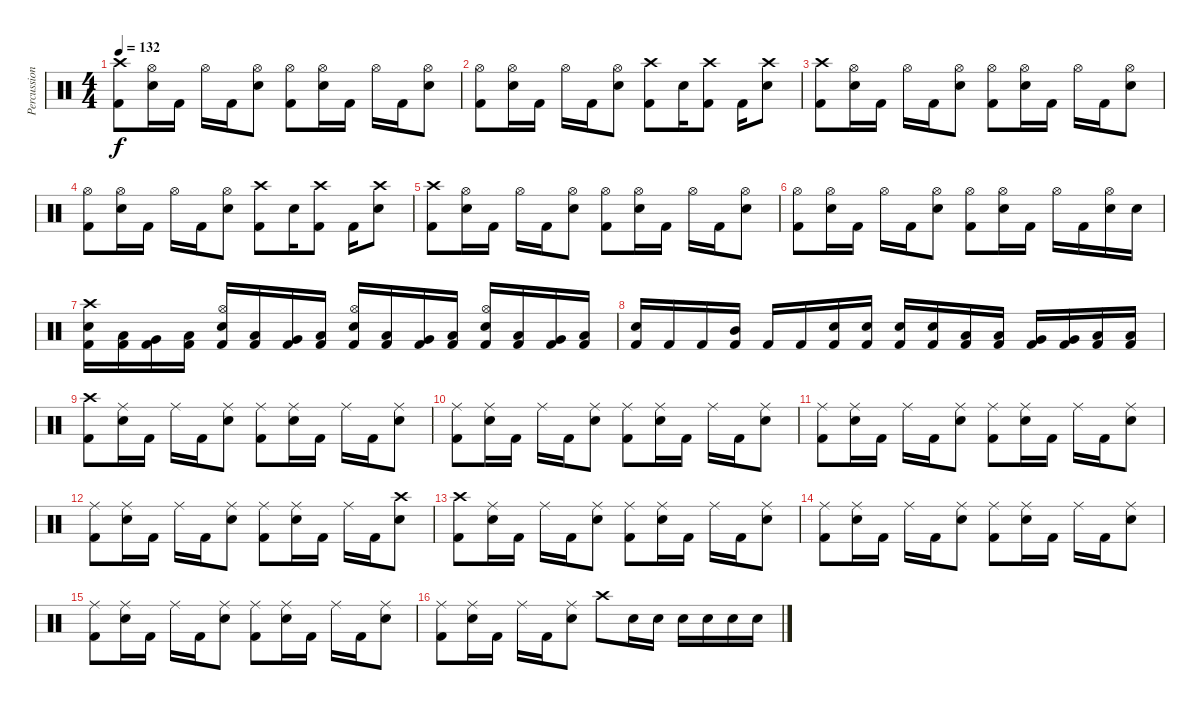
\track ("Percussion" "Percussion") {instrument percussion}
\staff {score}
\articulation defaults
\ts (4 4)
\tempo 132
\clef neutral
\ks c
("Crash high (hit)" "Kick (hit) 2").8{dy f} ("Hi-Hat (open)" "Snare (hit) 2").16 "Kick (hit) 2".16 "Hi-Hat (open)".16 "Kick (hit) 2".16 ("Hi-Hat (open)" "Snare (hit) 2").8 ("Hi-Hat (open)" "Kick (hit) 2").8 ("Hi-Hat (open)" "Snare (hit) 2").16 "Kick (hit) 2".16 "Hi-Hat (open)".16 "Kick (hit) 2".16 ("Hi-Hat (open)" "Snare (hit) 2").8 |
("Hi-Hat (open)" "Kick (hit) 2").8 ("Hi-Hat (open)" "Snare (hit) 2").16 "Kick (hit) 2".16 "Hi-Hat (open)".16 "Kick (hit) 2".16 ("Hi-Hat (open)" "Snare (hit) 2").8 ("Crash high (hit)" "Kick (hit) 2").8 "Snare (hit) 2".16 ("Crash high (hit)" "Kick (hit) 2").8 "Kick (hit) 2".16 ("Crash high (hit)" "Snare (hit) 2").8 |
("Crash high (hit)" "Kick (hit) 2").8 ("Hi-Hat (open)" "Snare (hit) 2").16 "Kick (hit) 2".16 "Hi-Hat (open)".16 "Kick (hit) 2".16 ("Hi-Hat (open)" "Snare (hit) 2").8 ("Hi-Hat (open)" "Kick (hit) 2").8 ("Hi-Hat (open)" "Snare (hit) 2").16 "Kick (hit) 2".16 "Hi-Hat (open)".16 "Kick (hit) 2".16 ("Hi-Hat (open)" "Snare (hit) 2").8 |
("Hi-Hat (open)" "Kick (hit) 2").8 ("Hi-Hat (open)" "Snare (hit) 2").16 "Kick (hit) 2".16 "Hi-Hat (open)".16 "Kick (hit) 2".16 ("Hi-Hat (open)" "Snare (hit) 2").8 ("Crash high (hit)" "Kick (hit) 2").8 "Snare (hit) 2".16 ("Crash high (hit)" "Kick (hit) 2").8 "Kick (hit) 2".16 ("Crash high (hit)" "Snare (hit) 2").8 |
("Crash high (hit)" "Kick (hit) 2").8 ("Hi-Hat (open)" "Snare (hit) 2").16 "Kick (hit) 2".16 "Hi-Hat (open)".16 "Kick (hit) 2".16 ("Hi-Hat (open)" "Snare (hit) 2").8 ("Hi-Hat (open)" "Kick (hit) 2").8 ("Hi-Hat (open)" "Snare (hit) 2").16 "Kick (hit) 2".16 "Hi-Hat (open)".16 "Kick (hit) 2".16 ("Hi-Hat (open)" "Snare (hit) 2").8 |
("Hi-Hat (open)" "Kick (hit) 2").8 ("Hi-Hat (open)" "Snare (hit) 2").16 "Kick (hit) 2".16 "Hi-Hat (open)".16 "Kick (hit) 2".16 ("Hi-Hat (open)" "Snare (hit) 2").8 ("Hi-Hat (open)" "Kick (hit) 2").8 ("Hi-Hat (open)" "Snare (hit) 2").16 "Kick (hit) 2".16 "Hi-Hat (open)".16 "Kick (hit) 2".16 ("Hi-Hat (open)" "Snare (hit) 2").16 "Snare (hit) 2".16 |
("Crash high (hit)" "Snare (hit) 2" "Kick (hit) 2").16 ("Low Tom (hit)" "Kick (hit) 2").16 ("Very Low Tom (hit)" "Kick (hit) 2").16 ("Low Floor Tom (hit)" "Kick (hit) 2").16 ("Hi-Hat (open)" "Snare (hit) 2" "Kick (hit) 2").16 ("Low Tom (hit)" "Kick (hit) 2").16 ("Very Low Tom (hit)" "Kick (hit) 2").16 ("Low Floor Tom (hit)" "Kick (hit) 2").16 ("Hi-Hat (open)" "Snare (hit) 2" "Kick (hit) 2").16 ("Low Tom (hit)" "Kick (hit) 2").16 ("Very Low Tom (hit)" "Kick (hit) 2").16 ("Low Floor Tom (hit)" "Kick (hit) 2").16 ("Hi-Hat (open)" "Snare (hit) 2" "Kick (hit) 2").16 ("Low Tom (hit)" "Kick (hit) 2").16 ("Very Low Tom (hit)" "Kick (hit) 2").16 ("Low Floor Tom (hit)" "Kick (hit) 2").16 |
("Snare (hit) 2" "Kick (hit) 2").16 "Kick (hit) 2".16 "Kick (hit) 2".16 ("Mid Tom (hit)" "Kick (hit) 2").16 "Kick (hit) 2".16 "Kick (hit) 2".16 ("Snare (hit) 2" "Kick (hit) 2").16 ("Snare (hit) 2" "Kick (hit) 2").16 ("Snare (hit) 2" "Kick (hit) 2").16 ("Snare (hit) 2" "Kick (hit) 2").16 ("Low Tom (hit)" "Kick (hit) 2").16 ("Low Tom (hit)" "Kick (hit) 2").16 ("Very Low Tom (hit)" "Kick (hit) 2").16 ("Very Low Tom (hit)" "Kick (hit) 2").16 ("Low Floor Tom (hit)" "Kick (hit) 2").16 ("Low Floor Tom (hit)" "Kick (hit) 2").16 |
("Crash high (hit)" "Kick (hit) 2").8 ("Ride (middle)" "Snare (hit) 2").16 "Kick (hit) 2".16 "Ride (middle)".16 "Kick (hit) 2".16 ("Ride (middle)" "Snare (hit) 2").8 ("Ride (middle)" "Kick (hit) 2").8 ("Ride (middle)" "Snare (hit) 2").16 "Kick (hit) 2".16 "Ride (middle)".16 "Kick (hit) 2".16 ("Ride (middle)" "Snare (hit) 2").8 |
("Ride (middle)" "Kick (hit) 2").8 ("Ride (middle)" "Snare (hit) 2").16 "Kick (hit) 2".16 "Ride (middle)".16 "Kick (hit) 2".16 ("Ride (middle)" "Snare (hit) 2").8 ("Ride (middle)" "Kick (hit) 2").8 ("Ride (middle)" "Snare (hit) 2").16 "Kick (hit) 2".16 "Ride (middle)".16 "Kick (hit) 2".16 ("Ride (middle)" "Snare (hit) 2").8 |
("Ride (middle)" "Kick (hit) 2").8 ("Ride (middle)" "Snare (hit) 2").16 "Kick (hit) 2".16 "Ride (middle)".16 "Kick (hit) 2".16 ("Ride (middle)" "Snare (hit) 2").8 ("Ride (middle)" "Kick (hit) 2").8 ("Ride (middle)" "Snare (hit) 2").16 "Kick (hit) 2".16 "Ride (middle)".16 "Kick (hit) 2".16 ("Ride (middle)" "Snare (hit) 2").8 |
("Ride (middle)" "Kick (hit) 2").8 ("Ride (middle)" "Snare (hit) 2").16 "Kick (hit) 2".16 "Ride (middle)".16 "Kick (hit) 2".16 ("Ride (middle)" "Snare (hit) 2").8 ("Ride (middle)" "Kick (hit) 2").8 ("Ride (middle)" "Snare (hit) 2").16 "Kick (hit) 2".16 "Ride (middle)".16 "Kick (hit) 2".16 ("Crash high (hit)" "Snare (hit) 2").8 |
("Crash high (hit)" "Kick (hit) 2").8 ("Ride (middle)" "Snare (hit) 2").16 "Kick (hit) 2".16 "Ride (middle)".16 "Kick (hit) 2".16 ("Ride (middle)" "Snare (hit) 2").8 ("Ride (middle)" "Kick (hit) 2").8 ("Ride (middle)" "Snare (hit) 2").16 "Kick (hit) 2".16 "Ride (middle)".16 "Kick (hit) 2".16 ("Ride (middle)" "Snare (hit) 2").8 |
("Ride (middle)" "Kick (hit) 2").8 ("Ride (middle)" "Snare (hit) 2").16 "Kick (hit) 2".16 "Ride (middle)".16 "Kick (hit) 2".16 ("Ride (middle)" "Snare (hit) 2").8 ("Ride (middle)" "Kick (hit) 2").8 ("Ride (middle)" "Snare (hit) 2").16 "Kick (hit) 2".16 "Ride (middle)".16 "Kick (hit) 2".16 ("Ride (middle)" "Snare (hit) 2").8 |
("Ride (middle)" "Kick (hit) 2").8 ("Ride (middle)" "Snare (hit) 2").16 "Kick (hit) 2".16 "Ride (middle)".16 "Kick (hit) 2".16 ("Ride (middle)" "Snare (hit) 2").8 ("Ride (middle)" "Kick (hit) 2").8 ("Ride (middle)" "Snare (hit) 2").16 "Kick (hit) 2".16 "Ride (middle)".16 "Kick (hit) 2".16 ("Ride (middle)" "Snare (hit) 2").8 |
("Ride (middle)" "Kick (hit) 2").8 ("Ride (middle)" "Snare (hit) 2").16 "Kick (hit) 2".16 "Ride (middle)".16 "Kick (hit) 2".16 ("Ride (middle)" "Snare (hit) 2").8 "Crash high (hit)".8 "Snare (hit) 2".16 "Snare (hit) 2".16 "Snare (hit) 2".16 "Snare (hit) 2".16 "Snare (hit) 2".16 "Snare (hit) 2".16
